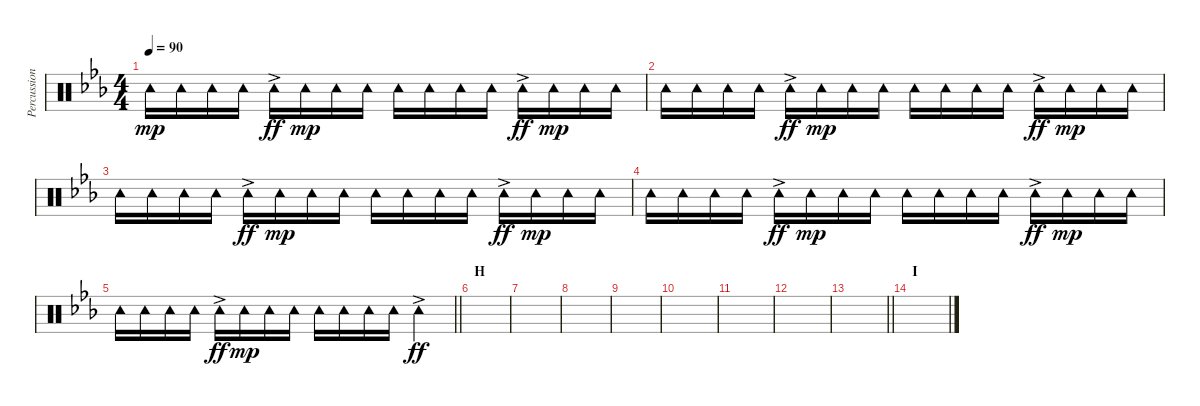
\track ("Percussion" "Percussion") {instrument percussion}
\staff {score}
\articulation defaults
\ts (4 4)
\tempo 90
\clef neutral
\ks eb "Tambourine (hit)".16{dy mp} "Tambourine (hit)".16 "Tambourine (hit)".16 "Tambourine (hit)".16 "Tambourine (hit)"{ac}.16{dy ff} "Tambourine (hit)".16{dy mp} "Tambourine (hit)".16 "Tambourine (hit)".16 "Tambourine (hit)".16 "Tambourine (hit)".16 "Tambourine (hit)".16 "Tambourine (hit)".16 "Tambourine (hit)"{ac}.16{dy ff} "Tambourine (hit)".16{dy mp} "Tambourine (hit)".16 "Tambourine (hit)".16
|
"Tambourine (hit)".16 "Tambourine (hit)".16 "Tambourine (hit)".16 "Tambourine (hit)".16 "Tambourine (hit)"{ac}.16{dy ff} "Tambourine (hit)".16{dy mp} "Tambourine (hit)".16 "Tambourine (hit)".16 "Tambourine (hit)".16 "Tambourine (hit)".16 "Tambourine (hit)".16 "Tambourine (hit)".16 "Tambourine (hit)"{ac}.16{dy ff} "Tambourine (hit)".16{dy mp} "Tambourine (hit)".16 "Tambourine (hit)".16 |
"Tambourine (hit)".16 "Tambourine (hit)".16 "Tambourine (hit)".16 "Tambourine (hit)".16 "Tambourine (hit)"{ac}.16{dy ff} "Tambourine (hit)".16{dy mp} "Tambourine (hit)".16 "Tambourine (hit)".16 "Tambourine (hit)".16 "Tambourine (hit)".16 "Tambourine (hit)".16 "Tambourine (hit)".16 "Tambourine (hit)"{ac}.16{dy ff} "Tambourine (hit)".16{dy mp} "Tambourine (hit)".16 "Tambourine (hit)".16 |
"Tambourine (hit)".16 "Tambourine (hit)".16 "Tambourine (hit)".16 "Tambourine (hit)".16 "Tambourine (hit)"{ac}.16{dy ff} "Tambourine (hit)".16{dy mp} "Tambourine (hit)".16 "Tambourine (hit)".16 "Tambourine (hit)".16 "Tambourine (hit)".16 "Tambourine (hit)".16 "Tambourine (hit)".16 "Tambourine (hit)"{ac}.16{dy ff} "Tambourine (hit)".16{dy mp} "Tambourine (hit)".16 "Tambourine (hit)".16 |
\barLineRight lightlight "Tambourine (hit)".16 "Tambourine (hit)".16 "Tambourine (hit)".16 "Tambourine (hit)".16 "Tambourine (hit)"{ac}.16{dy ff} "Tambourine (hit)".16{dy mp} "Tambourine (hit)".16 "Tambourine (hit)".16 "Tambourine (hit)".16 "Tambourine (hit)".16 "Tambourine (hit)".16 "Tambourine (hit)".16 "Tambourine (hit)"{ac}.4{dy ff}
|
\section ("" "H")
|
|
|
|
|
|
|
\barLineRight lightlight
|
\section ("" "I")
